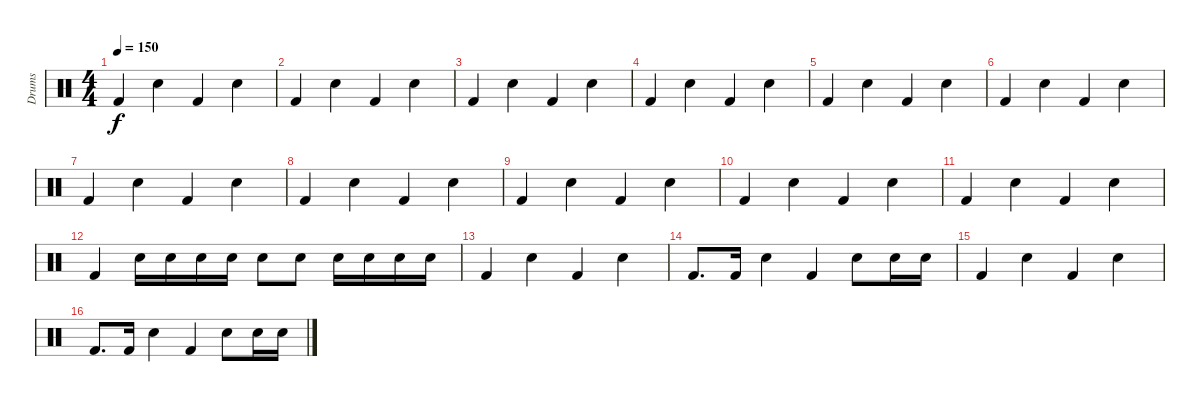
\track ("Drums" "Drums") {instrument percussion}
\staff {score}
\articulation defaults
\ts (4 4)
\tempo 150
\clef neutral
\ks c "Kick (hit) 2".4{dy f} "Electric Snare (hit)".4 "Kick (hit) 2".4 "Electric Snare (hit)".4
|
"Kick (hit) 2".4 "Electric Snare (hit)".4 "Kick (hit) 2".4 "Electric Snare (hit)".4 |
"Kick (hit) 2".4 "Electric Snare (hit)".4 "Kick (hit) 2".4 "Electric Snare (hit)".4 |
"Kick (hit) 2".4 "Electric Snare (hit)".4 "Kick (hit) 2".4 "Electric Snare (hit)".4 |
"Kick (hit) 2".4 "Electric Snare (hit)".4 "Kick (hit) 2".4 "Electric Snare (hit)".4 |
"Kick (hit) 2".4 "Electric Snare (hit)".4 "Kick (hit) 2".4 "Electric Snare (hit)".4 |
"Kick (hit) 2".4 "Electric Snare (hit)".4 "Kick (hit) 2".4 "Electric Snare (hit)".4 |
"Kick (hit) 2".4 "Electric Snare (hit)".4 "Kick (hit) 2".4 "Electric Snare (hit)".4 |
"Kick (hit) 2".4 "Electric Snare (hit)".4 "Kick (hit) 2".4 "Electric Snare (hit)".4 |
"Kick (hit) 2".4 "Electric Snare (hit)".4 "Kick (hit) 2".4 "Electric Snare (hit)".4 |
"Kick (hit) 2".4 "Electric Snare (hit)".4 "Kick (hit) 2".4 "Electric Snare (hit)".4 |
"Kick (hit) 2".4 "Electric Snare (hit)".16 "Electric Snare (hit)".16 "Electric Snare (hit)".16 "Electric Snare (hit)".16 "Electric Snare (hit)".8 "Electric Snare (hit)".8 "Electric Snare (hit)".16 "Electric Snare (hit)".16 "Electric Snare (hit)".16 "Electric Snare (hit)".16 |
"Kick (hit) 2".4 "Electric Snare (hit)".4 "Kick (hit) 2".4 "Electric Snare (hit)".4 |
"Kick (hit) 2".8{d} "Kick (hit) 2".16 "Electric Snare (hit)".4 "Kick (hit) 2".4 "Electric Snare (hit)".8 "Electric Snare (hit)".16 "Electric Snare (hit)".16 |
"Kick (hit) 2".4 "Electric Snare (hit)".4 "Kick (hit) 2".4 "Electric Snare (hit)".4 |
"Kick (hit) 2".8{d} "Kick (hit) 2".16 "Electric Snare (hit)".4 "Kick (hit) 2".4 "Electric Snare (hit)".8 "Electric Snare (hit)".16 "Electric Snare (hit)".16
